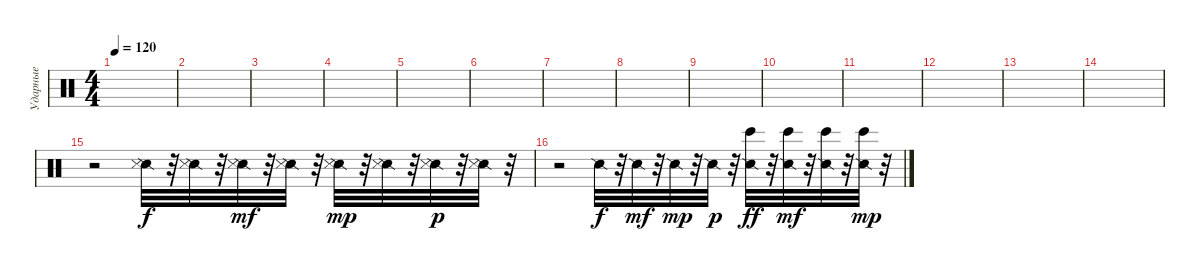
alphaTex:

\track ("Ударные" "Ударные") {instrument percussion}
\staff {score}
\articulation defaults
\ts (4 4)
\tempo 120
\clef neutral
\ks c
|
|
|
|
|
|
|
|
|
|
|
|
|
|
r.2 ("Snare (side stick) 2" "Snare (side stick) 3").32 r.32 ("Snare (side stick) 2" "Snare (side stick) 3").32{dy f} r.32 ("Snare (side stick) 2" "Snare (side stick) 3").32{dy mf} r.32 ("Snare (side stick) 2" "Snare (side stick) 3").32 r.32 ("Snare (side stick) 2" "Snare (side stick) 3").32{dy mp} r.32 ("Snare (side stick) 2" "Snare (side stick) 3").32 r.32 ("Snare (side stick) 2" "Snare (side stick) 3").32{dy p} r.32 ("Snare (side stick) 2" "Snare (side stick) 3").32 r.32 |
r.2 "Snare (side stick) 2".32{dy f} r.32 "Snare (side stick) 2".32{dy mf} r.32 "Snare (side stick) 2".32{dy mp} r.32 "Snare (side stick) 2".32{dy p} r.32 ("Snare (side stick) 2" "Bongo High (hit)").32{dy ff} r.32 ("Snare (side stick) 2" "Bongo High (hit)").32{dy mf} r.32 ("Snare (side stick) 2" "Bongo High (hit)").32 r.32 ("Snare (side stick) 2" "Bongo High (hit)").32{dy mp} r.32
